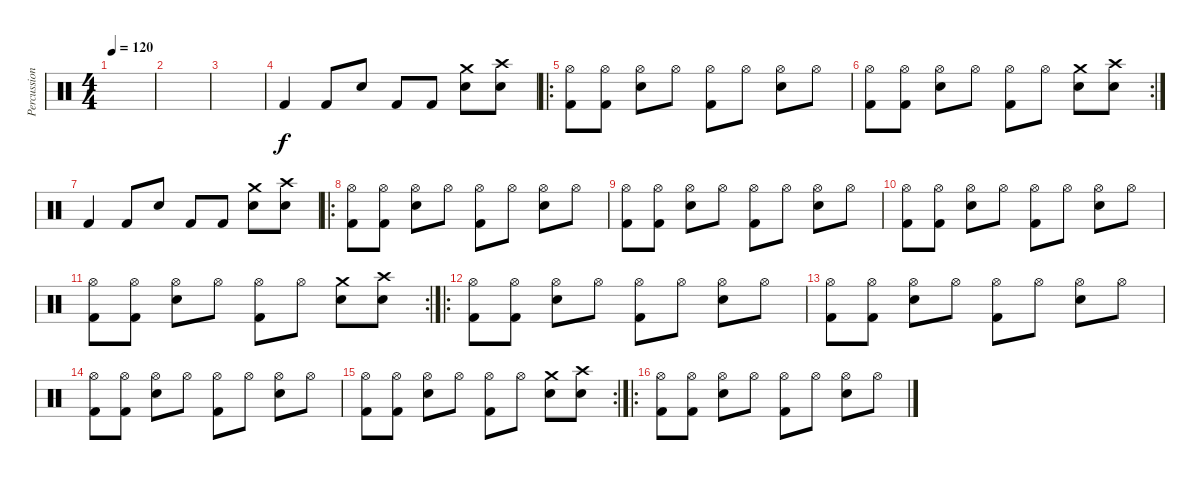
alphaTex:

\track ("Percussion" "Percussion") {instrument percussion}
\staff {score}
\articulation defaults
\ts (4 4)
\tempo 120
\clef neutral
\ks c
|
|
|
"Kick (hit) 2".4 "Kick (hit) 2".8 "Snare (hit) 2".8 "Kick (hit) 2".8 "Kick (hit) 2".8 ("Crash medium (hit)" "Snare (hit) 2").8 ("Crash high (hit)" "Snare (hit) 2").8 |
\ro
("Hi-Hat (open)" "Kick (hit) 2").8 ("Hi-Hat (open)" "Kick (hit) 2").8 ("Hi-Hat (open)" "Snare (hit) 2").8 "Hi-Hat (open)".8 ("Hi-Hat (open)" "Kick (hit) 2").8 "Hi-Hat (open)".8 ("Hi-Hat (open)" "Snare (hit) 2").8 "Hi-Hat (open)".8 |
\rc 2
("Hi-Hat (open)" "Kick (hit) 2").8 ("Hi-Hat (open)" "Kick (hit) 2").8 ("Hi-Hat (open)" "Snare (hit) 2").8 "Hi-Hat (open)".8 ("Hi-Hat (open)" "Kick (hit) 2").8 "Hi-Hat (open)".8 ("Crash medium (hit)" "Snare (hit) 2").8 ("Crash high (hit)" "Snare (hit) 2").8 |
"Kick (hit) 2".4 "Kick (hit) 2".8 "Snare (hit) 2".8 "Kick (hit) 2".8 "Kick (hit) 2".8 ("Crash medium (hit)" "Snare (hit) 2").8 ("Crash high (hit)" "Snare (hit) 2").8 |
\ro
("Hi-Hat (open)" "Kick (hit) 2").8 ("Hi-Hat (open)" "Kick (hit) 2").8 ("Hi-Hat (open)" "Snare (hit) 2").8 "Hi-Hat (open)".8 ("Hi-Hat (open)" "Kick (hit) 2").8 "Hi-Hat (open)".8 ("Hi-Hat (open)" "Snare (hit) 2").8 "Hi-Hat (open)".8 |
("Hi-Hat (open)" "Kick (hit) 2").8 ("Hi-Hat (open)" "Kick (hit) 2").8 ("Hi-Hat (open)" "Snare (hit) 2").8 "Hi-Hat (open)".8 ("Hi-Hat (open)" "Kick (hit) 2").8 "Hi-Hat (open)".8 ("Hi-Hat (open)" "Snare (hit) 2").8 "Hi-Hat (open)".8 |
("Hi-Hat (open)" "Kick (hit) 2").8 ("Hi-Hat (open)" "Kick (hit) 2").8 ("Hi-Hat (open)" "Snare (hit) 2").8 "Hi-Hat (open)".8 ("Hi-Hat (open)" "Kick (hit) 2").8 "Hi-Hat (open)".8 ("Hi-Hat (open)" "Snare (hit) 2").8 "Hi-Hat (open)".8 |
\rc 2
("Hi-Hat (open)" "Kick (hit) 2").8 ("Hi-Hat (open)" "Kick (hit) 2").8 ("Hi-Hat (open)" "Snare (hit) 2").8 "Hi-Hat (open)".8 ("Hi-Hat (open)" "Kick (hit) 2").8 "Hi-Hat (open)".8 ("Crash medium (hit)" "Snare (hit) 2").8 ("Crash high (hit)" "Snare (hit) 2").8 |
\ro
("Hi-Hat (open)" "Kick (hit) 2").8 ("Hi-Hat (open)" "Kick (hit) 2").8 ("Hi-Hat (open)" "Snare (hit) 2").8 "Hi-Hat (open)".8 ("Hi-Hat (open)" "Kick (hit) 2").8 "Hi-Hat (open)".8 ("Hi-Hat (open)" "Snare (hit) 2").8 "Hi-Hat (open)".8 |
("Hi-Hat (open)" "Kick (hit) 2").8 ("Hi-Hat (open)" "Kick (hit) 2").8 ("Hi-Hat (open)" "Snare (hit) 2").8 "Hi-Hat (open)".8 ("Hi-Hat (open)" "Kick (hit) 2").8 "Hi-Hat (open)".8 ("Hi-Hat (open)" "Snare (hit) 2").8 "Hi-Hat (open)".8 |
("Hi-Hat (open)" "Kick (hit) 2").8 ("Hi-Hat (open)" "Kick (hit) 2").8 ("Hi-Hat (open)" "Snare (hit) 2").8 "Hi-Hat (open)".8 ("Hi-Hat (open)" "Kick (hit) 2").8 "Hi-Hat (open)".8 ("Hi-Hat (open)" "Snare (hit) 2").8 "Hi-Hat (open)".8 |
\rc 2
("Hi-Hat (open)" "Kick (hit) 2").8 ("Hi-Hat (open)" "Kick (hit) 2").8 ("Hi-Hat (open)" "Snare (hit) 2").8 "Hi-Hat (open)".8 ("Hi-Hat (open)" "Kick (hit) 2").8 "Hi-Hat (open)".8 ("Crash medium (hit)" "Snare (hit) 2").8 ("Crash high (hit)" "Snare (hit) 2").8 |
\ro
("Hi-Hat (open)" "Kick (hit) 2").8 ("Hi-Hat (open)" "Kick (hit) 2").8 ("Hi-Hat (open)" "Snare (hit) 2").8 "Hi-Hat (open)".8 ("Hi-Hat (open)" "Kick (hit) 2").8 "Hi-Hat (open)".8 ("Hi-Hat (open)" "Snare (hit) 2").8 "Hi-Hat (open)".8
